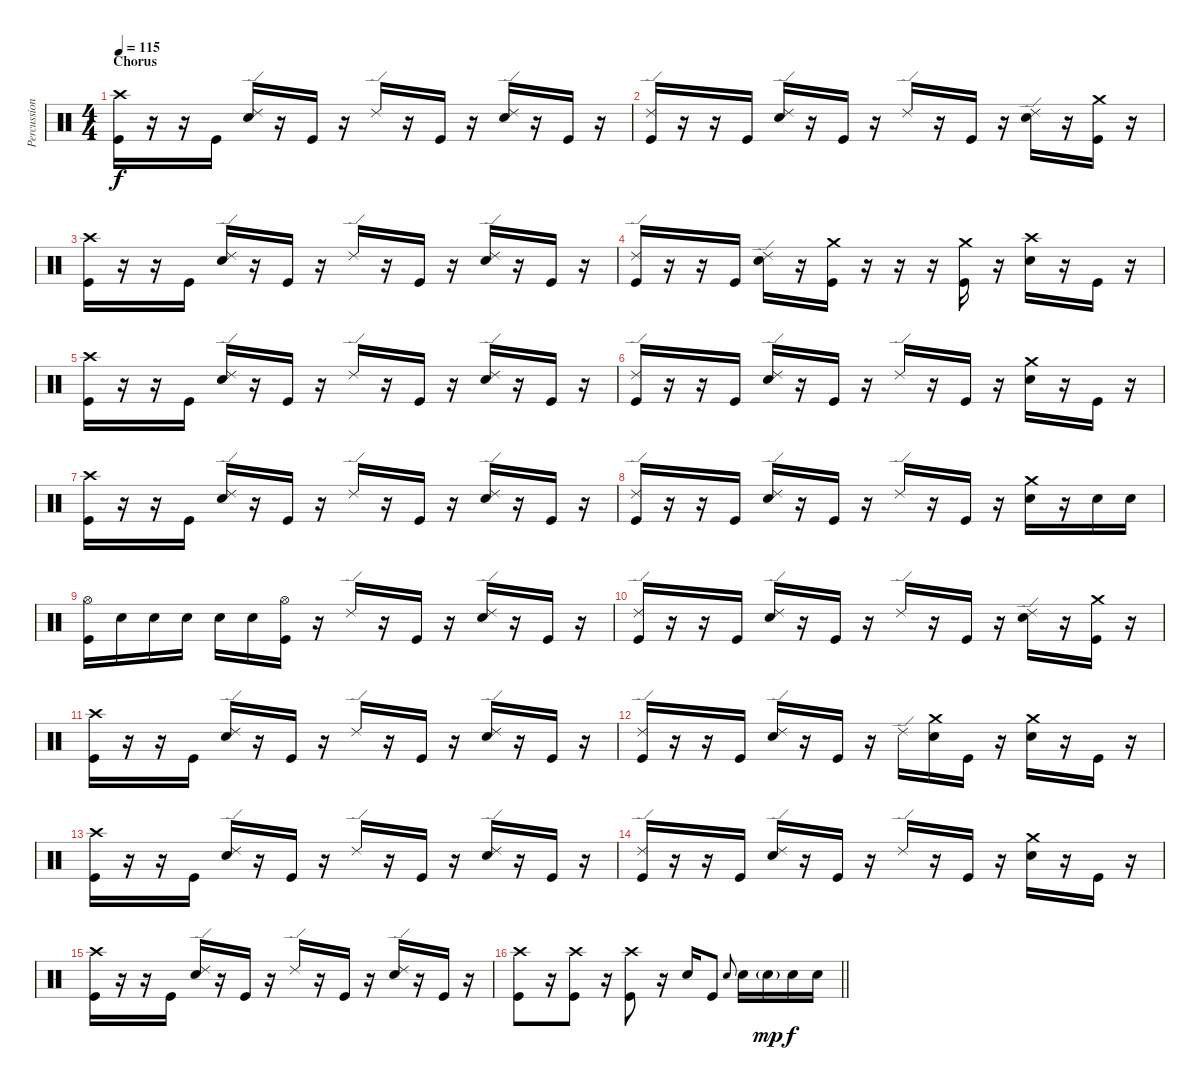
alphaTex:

\track ("Percussion" "Percussion") {instrument percussion}
\staff {score}
\articulation defaults
\ts (4 4)
\section ("" "Chorus")
\tempo 115
\clef neutral
\ks c
("Crash high (hit)" "Kick (hit)").16{dy f} r.16 r.16 "Kick (hit)".16 ("Ride (edge) 2" "Electric Snare (hit)").16 r.16 "Kick (hit)".16 r.16 "Ride (edge) 2".16 r.16 "Kick (hit)".16 r.16 ("Ride (edge) 2" "Electric Snare (hit)").16 r.16 "Kick (hit)".16 r.16 |
("Ride (edge) 2" "Kick (hit)").16 r.16 r.16 "Kick (hit)".16 ("Ride (edge) 2" "Electric Snare (hit)").16 r.16 "Kick (hit)".16 r.16 "Ride (edge) 2".16 r.16 "Kick (hit)".16 r.16 ("Ride (edge) 2" "Electric Snare (hit)").16 r.16 ("Crash medium (hit)" "Kick (hit)").16 r.16 |
("Crash high (hit)" "Kick (hit)").16 r.16 r.16 "Kick (hit)".16 ("Ride (edge) 2" "Electric Snare (hit)").16 r.16 "Kick (hit)".16 r.16 "Ride (edge) 2".16 r.16 "Kick (hit)".16 r.16 ("Ride (edge) 2" "Electric Snare (hit)").16 r.16 "Kick (hit)".16 r.16 |
("Ride (edge) 2" "Kick (hit)").16 r.16 r.16 "Kick (hit)".16 ("Ride (edge) 2" "Electric Snare (hit)").16 r.16 ("Crash medium (hit)" "Kick (hit)").16 r.16 r.16 r.16 ("Crash medium (hit)" "Kick (hit)").16 r.16 ("Crash high (hit)" "Electric Snare (hit)").16 r.16 "Kick (hit)".16 r.16 |
("Crash high (hit)" "Kick (hit)").16 r.16 r.16 "Kick (hit)".16 ("Ride (edge) 2" "Electric Snare (hit)").16 r.16 "Kick (hit)".16 r.16 "Ride (edge) 2".16 r.16 "Kick (hit)".16 r.16 ("Ride (edge) 2" "Electric Snare (hit)").16 r.16 "Kick (hit)".16 r.16 |
("Ride (edge) 2" "Kick (hit)").16 r.16 r.16 "Kick (hit)".16 ("Ride (edge) 2" "Electric Snare (hit)").16 r.16 "Kick (hit)".16 r.16 "Ride (edge) 2".16 r.16 "Kick (hit)".16 r.16 ("Crash medium (hit)" "Electric Snare (hit)").16 r.16 "Kick (hit)".16 r.16 |
("Crash high (hit)" "Kick (hit)").16 r.16 r.16 "Kick (hit)".16 ("Ride (edge) 2" "Electric Snare (hit)").16 r.16 "Kick (hit)".16 r.16 "Ride (edge) 2".16 r.16 "Kick (hit)".16 r.16 ("Ride (edge) 2" "Electric Snare (hit)").16 r.16 "Kick (hit)".16 r.16 |
("Ride (edge) 2" "Kick (hit)").16 r.16 r.16 "Kick (hit)".16 ("Ride (edge) 2" "Electric Snare (hit)").16 r.16 "Kick (hit)".16 r.16 "Ride (edge) 2".16 r.16 "Kick (hit)".16 r.16 ("Crash medium (hit)" "Electric Snare (hit)").16 r.16 "Electric Snare (hit)".16 "Electric Snare (hit)".16 |
("Hi-Hat (open)" "Kick (hit)").16 "Electric Snare (hit)".16 "Electric Snare (hit)".16 "Electric Snare (hit)".16 "Electric Snare (hit)".16 "Electric Snare (hit)".16 ("Hi-Hat (open)" "Kick (hit)").16 r.16 "Ride (edge) 2".16 r.16 "Kick (hit)".16 r.16 ("Ride (edge) 2" "Electric Snare (hit)").16 r.16 "Kick (hit)".16 r.16 |
("Ride (edge) 2" "Kick (hit)").16 r.16 r.16 "Kick (hit)".16 ("Ride (edge) 2" "Electric Snare (hit)").16 r.16 "Kick (hit)".16 r.16 "Ride (edge) 2".16 r.16 "Kick (hit)".16 r.16 ("Ride (edge) 2" "Electric Snare (hit)").16 r.16 ("Crash medium (hit)" "Kick (hit)").16 r.16 |
("Crash high (hit)" "Kick (hit)").16 r.16 r.16 "Kick (hit)".16 ("Ride (edge) 2" "Electric Snare (hit)").16 r.16 "Kick (hit)".16 r.16 "Ride (edge) 2".16 r.16 "Kick (hit)".16 r.16 ("Ride (edge) 2" "Electric Snare (hit)").16 r.16 "Kick (hit)".16 r.16 |
("Ride (edge) 2" "Kick (hit)").16 r.16 r.16 "Kick (hit)".16 ("Ride (edge) 2" "Electric Snare (hit)").16 r.16 "Kick (hit)".16 r.16 "Ride (edge) 2".16 ("Crash medium (hit)" "Electric Snare (hit)").16 "Kick (hit)".16 r.16 ("Crash medium (hit)" "Electric Snare (hit)").16 r.16 "Kick (hit)".16 r.16 |
("Crash high (hit)" "Kick (hit)").16 r.16 r.16 "Kick (hit)".16 ("Ride (edge) 2" "Electric Snare (hit)").16 r.16 "Kick (hit)".16 r.16 "Ride (edge) 2".16 r.16 "Kick (hit)".16 r.16 ("Ride (edge) 2" "Electric Snare (hit)").16 r.16 "Kick (hit)".16 r.16 |
("Ride (edge) 2" "Kick (hit)").16 r.16 r.16 "Kick (hit)".16 ("Ride (edge) 2" "Electric Snare (hit)").16 r.16 "Kick (hit)".16 r.16 "Ride (edge) 2".16 r.16 "Kick (hit)".16 r.16 ("Crash medium (hit)" "Electric Snare (hit)").16 r.16 "Kick (hit)".16 r.16 |
("Crash high (hit)" "Kick (hit)").16 r.16 r.16 "Kick (hit)".16 ("Ride (edge) 2" "Electric Snare (hit)").16 r.16 "Kick (hit)".16 r.16 "Ride (edge) 2".16 r.16 "Kick (hit)".16 r.16 ("Ride (edge) 2" "Electric Snare (hit)").16 r.16 "Kick (hit)".16 r.16 |
\barLineRight lightlight
("Crash high (hit)" "Kick (hit)").8 r.16 ("Crash high (hit)" "Kick (hit)").8 r.16 ("Crash high (hit)" "Kick (hit)").8 r.16 "Electric Snare (hit)".16 "Kick (hit)".8 "Electric Snare (hit)".8{gr onbeat} "Electric Snare (hit)".16 "Electric Snare (hit)"{g}.16{dy mp} "Electric Snare (hit)".16{dy f} "Electric Snare (hit)".16
